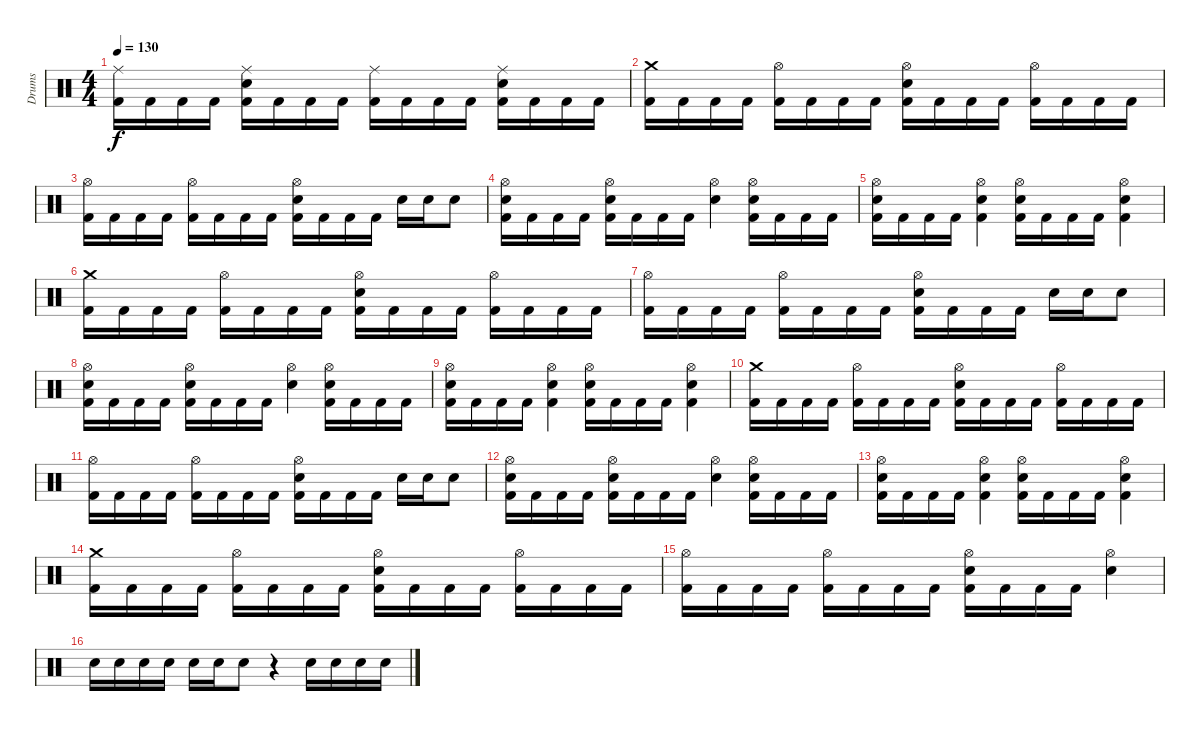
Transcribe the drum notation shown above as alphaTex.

\track ("Drums" "Drums") {instrument percussion}
\staff {score}
\articulation defaults
\ts (4 4)
\tempo 130
\clef neutral
\ks c
("Ride (middle)" "Kick (hit) 2").16{dy f} "Kick (hit) 2".16 "Kick (hit) 2".16 "Kick (hit) 2".16 ("Ride (middle)" "Snare (hit) 2" "Kick (hit) 2").16 "Kick (hit) 2".16 "Kick (hit) 2".16 "Kick (hit) 2".16 ("Ride (middle)" "Kick (hit) 2").16 "Kick (hit) 2".16 "Kick (hit) 2".16 "Kick (hit) 2".16 ("Ride (middle)" "Snare (hit) 2" "Kick (hit) 2").16 "Kick (hit) 2".16 "Kick (hit) 2".16 "Kick (hit) 2".16 |
("Crash medium (hit)" "Kick (hit) 2").16 "Kick (hit) 2".16 "Kick (hit) 2".16 "Kick (hit) 2".16 ("Hi-Hat (open)" "Kick (hit) 2").16 "Kick (hit) 2".16 "Kick (hit) 2".16 "Kick (hit) 2".16 ("Hi-Hat (open)" "Snare (hit) 2" "Kick (hit) 2").16 "Kick (hit) 2".16 "Kick (hit) 2".16 "Kick (hit) 2".16 ("Hi-Hat (open)" "Kick (hit) 2").16 "Kick (hit) 2".16 "Kick (hit) 2".16 "Kick (hit) 2".16 |
("Hi-Hat (open)" "Kick (hit) 2").16 "Kick (hit) 2".16 "Kick (hit) 2".16 "Kick (hit) 2".16 ("Hi-Hat (open)" "Kick (hit) 2").16 "Kick (hit) 2".16 "Kick (hit) 2".16 "Kick (hit) 2".16 ("Hi-Hat (open)" "Snare (hit) 2" "Kick (hit) 2").16 "Kick (hit) 2".16 "Kick (hit) 2".16 "Kick (hit) 2".16 "Snare (hit) 2".16 "Snare (hit) 2".16 "Snare (hit) 2".8 |
("Hi-Hat (open)" "Snare (hit) 2" "Kick (hit) 2").16 "Kick (hit) 2".16 "Kick (hit) 2".16 "Kick (hit) 2".16 ("Hi-Hat (open)" "Snare (hit) 2" "Kick (hit) 2").16 "Kick (hit) 2".16 "Kick (hit) 2".16 "Kick (hit) 2".16 ("Hi-Hat (open)" "Snare (hit) 2").4 ("Hi-Hat (open)" "Snare (hit) 2" "Kick (hit) 2").16 "Kick (hit) 2".16 "Kick (hit) 2".16 "Kick (hit) 2".16 |
("Hi-Hat (open)" "Snare (hit) 2" "Kick (hit) 2").16 "Kick (hit) 2".16 "Kick (hit) 2".16 "Kick (hit) 2".16 ("Hi-Hat (open)" "Snare (hit) 2" "Kick (hit) 2").4 ("Hi-Hat (open)" "Snare (hit) 2" "Kick (hit) 2").16 "Kick (hit) 2".16 "Kick (hit) 2".16 "Kick (hit) 2".16 ("Hi-Hat (open)" "Snare (hit) 2" "Kick (hit) 2").4 |
("Crash medium (hit)" "Kick (hit) 2").16 "Kick (hit) 2".16 "Kick (hit) 2".16 "Kick (hit) 2".16 ("Hi-Hat (open)" "Kick (hit) 2").16 "Kick (hit) 2".16 "Kick (hit) 2".16 "Kick (hit) 2".16 ("Hi-Hat (open)" "Snare (hit) 2" "Kick (hit) 2").16 "Kick (hit) 2".16 "Kick (hit) 2".16 "Kick (hit) 2".16 ("Hi-Hat (open)" "Kick (hit) 2").16 "Kick (hit) 2".16 "Kick (hit) 2".16 "Kick (hit) 2".16 |
("Hi-Hat (open)" "Kick (hit) 2").16 "Kick (hit) 2".16 "Kick (hit) 2".16 "Kick (hit) 2".16 ("Hi-Hat (open)" "Kick (hit) 2").16 "Kick (hit) 2".16 "Kick (hit) 2".16 "Kick (hit) 2".16 ("Hi-Hat (open)" "Snare (hit) 2" "Kick (hit) 2").16 "Kick (hit) 2".16 "Kick (hit) 2".16 "Kick (hit) 2".16 "Snare (hit) 2".16 "Snare (hit) 2".16 "Snare (hit) 2".8 |
("Hi-Hat (open)" "Snare (hit) 2" "Kick (hit) 2").16 "Kick (hit) 2".16 "Kick (hit) 2".16 "Kick (hit) 2".16 ("Hi-Hat (open)" "Snare (hit) 2" "Kick (hit) 2").16 "Kick (hit) 2".16 "Kick (hit) 2".16 "Kick (hit) 2".16 ("Hi-Hat (open)" "Snare (hit) 2").4 ("Hi-Hat (open)" "Snare (hit) 2" "Kick (hit) 2").16 "Kick (hit) 2".16 "Kick (hit) 2".16 "Kick (hit) 2".16 |
("Hi-Hat (open)" "Snare (hit) 2" "Kick (hit) 2").16 "Kick (hit) 2".16 "Kick (hit) 2".16 "Kick (hit) 2".16 ("Hi-Hat (open)" "Snare (hit) 2" "Kick (hit) 2").4 ("Hi-Hat (open)" "Snare (hit) 2" "Kick (hit) 2").16 "Kick (hit) 2".16 "Kick (hit) 2".16 "Kick (hit) 2".16 ("Hi-Hat (open)" "Snare (hit) 2" "Kick (hit) 2").4 |
("Crash medium (hit)" "Kick (hit) 2").16 "Kick (hit) 2".16 "Kick (hit) 2".16 "Kick (hit) 2".16 ("Hi-Hat (open)" "Kick (hit) 2").16 "Kick (hit) 2".16 "Kick (hit) 2".16 "Kick (hit) 2".16 ("Hi-Hat (open)" "Snare (hit) 2" "Kick (hit) 2").16 "Kick (hit) 2".16 "Kick (hit) 2".16 "Kick (hit) 2".16 ("Hi-Hat (open)" "Kick (hit) 2").16 "Kick (hit) 2".16 "Kick (hit) 2".16 "Kick (hit) 2".16 |
("Hi-Hat (open)" "Kick (hit) 2").16 "Kick (hit) 2".16 "Kick (hit) 2".16 "Kick (hit) 2".16 ("Hi-Hat (open)" "Kick (hit) 2").16 "Kick (hit) 2".16 "Kick (hit) 2".16 "Kick (hit) 2".16 ("Hi-Hat (open)" "Snare (hit) 2" "Kick (hit) 2").16 "Kick (hit) 2".16 "Kick (hit) 2".16 "Kick (hit) 2".16 "Snare (hit) 2".16 "Snare (hit) 2".16 "Snare (hit) 2".8 |
("Hi-Hat (open)" "Snare (hit) 2" "Kick (hit) 2").16 "Kick (hit) 2".16 "Kick (hit) 2".16 "Kick (hit) 2".16 ("Hi-Hat (open)" "Snare (hit) 2" "Kick (hit) 2").16 "Kick (hit) 2".16 "Kick (hit) 2".16 "Kick (hit) 2".16 ("Hi-Hat (open)" "Snare (hit) 2").4 ("Hi-Hat (open)" "Snare (hit) 2" "Kick (hit) 2").16 "Kick (hit) 2".16 "Kick (hit) 2".16 "Kick (hit) 2".16 |
("Hi-Hat (open)" "Snare (hit) 2" "Kick (hit) 2").16 "Kick (hit) 2".16 "Kick (hit) 2".16 "Kick (hit) 2".16 ("Hi-Hat (open)" "Snare (hit) 2" "Kick (hit) 2").4 ("Hi-Hat (open)" "Snare (hit) 2" "Kick (hit) 2").16 "Kick (hit) 2".16 "Kick (hit) 2".16 "Kick (hit) 2".16 ("Hi-Hat (open)" "Snare (hit) 2" "Kick (hit) 2").4 |
("Crash medium (hit)" "Kick (hit) 2").16 "Kick (hit) 2".16 "Kick (hit) 2".16 "Kick (hit) 2".16 ("Hi-Hat (open)" "Kick (hit) 2").16 "Kick (hit) 2".16 "Kick (hit) 2".16 "Kick (hit) 2".16 ("Hi-Hat (open)" "Snare (hit) 2" "Kick (hit) 2").16 "Kick (hit) 2".16 "Kick (hit) 2".16 "Kick (hit) 2".16 ("Hi-Hat (open)" "Kick (hit) 2").16 "Kick (hit) 2".16 "Kick (hit) 2".16 "Kick (hit) 2".16 |
("Hi-Hat (open)" "Kick (hit) 2").16 "Kick (hit) 2".16 "Kick (hit) 2".16 "Kick (hit) 2".16 ("Hi-Hat (open)" "Kick (hit) 2").16 "Kick (hit) 2".16 "Kick (hit) 2".16 "Kick (hit) 2".16 ("Hi-Hat (open)" "Snare (hit) 2" "Kick (hit) 2").16 "Kick (hit) 2".16 "Kick (hit) 2".16 "Kick (hit) 2".16 ("Hi-Hat (open)" "Snare (hit) 2").4 |
"Snare (hit) 2".16 "Snare (hit) 2".16 "Snare (hit) 2".16 "Snare (hit) 2".16 "Snare (hit) 2".16 "Snare (hit) 2".16 "Snare (hit) 2".8 r.4 "Snare (hit) 2".16 "Snare (hit) 2".16 "Snare (hit) 2".16 "Snare (hit) 2".16
